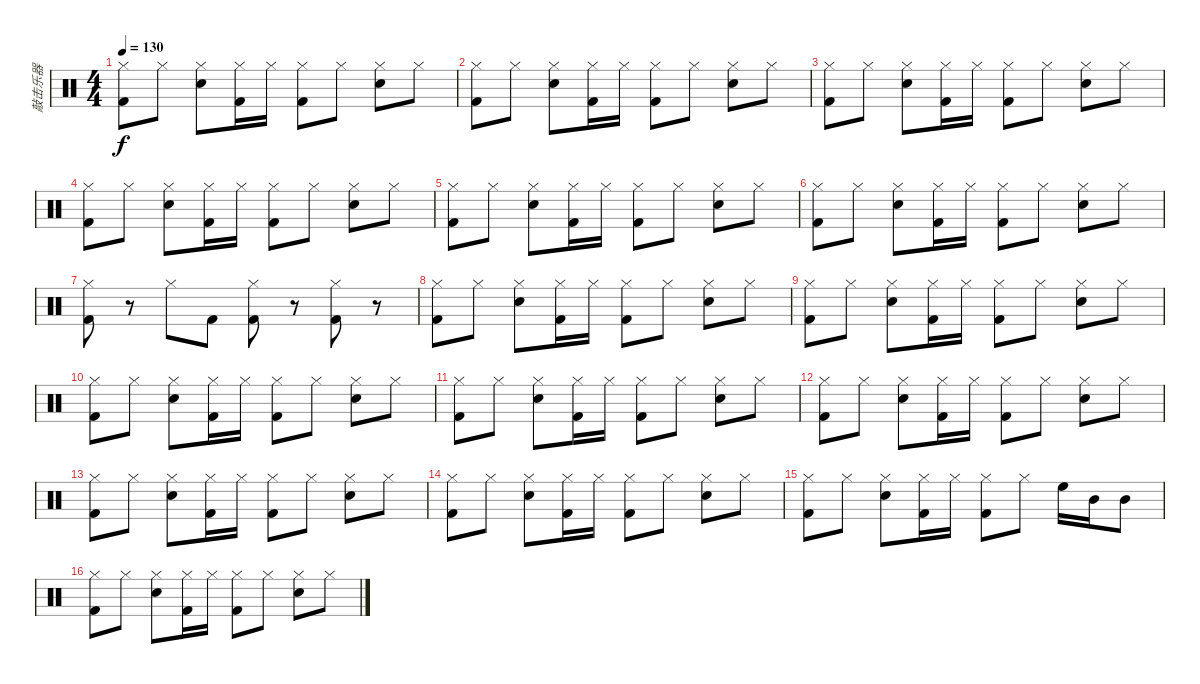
\track ("敲击乐器" "敲击乐器") {instrument percussion}
\staff {score}
\articulation defaults
\ts (4 4)
\tempo 130
\clef neutral
\ks c
("Hi-Hat (closed)" "Kick (hit) 2").8{dy f} "Hi-Hat (closed)".8 ("Hi-Hat (closed)" "Snare (hit) 2").8 ("Hi-Hat (closed)" "Kick (hit) 2").16 "Hi-Hat (closed)".16 ("Hi-Hat (closed)" "Kick (hit) 2").8 "Hi-Hat (closed)".8 ("Hi-Hat (closed)" "Snare (hit) 2").8 "Hi-Hat (closed)".8 |
("Hi-Hat (closed)" "Kick (hit) 2").8 "Hi-Hat (closed)".8 ("Hi-Hat (closed)" "Snare (hit) 2").8 ("Hi-Hat (closed)" "Kick (hit) 2").16 "Hi-Hat (closed)".16 ("Hi-Hat (closed)" "Kick (hit) 2").8 "Hi-Hat (closed)".8 ("Hi-Hat (closed)" "Snare (hit) 2").8 "Hi-Hat (closed)".8 |
("Hi-Hat (closed)" "Kick (hit) 2").8 "Hi-Hat (closed)".8 ("Hi-Hat (closed)" "Snare (hit) 2").8 ("Hi-Hat (closed)" "Kick (hit) 2").16 "Hi-Hat (closed)".16 ("Hi-Hat (closed)" "Kick (hit) 2").8 "Hi-Hat (closed)".8 ("Hi-Hat (closed)" "Snare (hit) 2").8 "Hi-Hat (closed)".8 |
("Hi-Hat (closed)" "Kick (hit) 2").8 "Hi-Hat (closed)".8 ("Hi-Hat (closed)" "Snare (hit) 2").8 ("Hi-Hat (closed)" "Kick (hit) 2").16 "Hi-Hat (closed)".16 ("Hi-Hat (closed)" "Kick (hit) 2").8 "Hi-Hat (closed)".8 ("Hi-Hat (closed)" "Snare (hit) 2").8 "Hi-Hat (closed)".8 |
("Hi-Hat (closed)" "Kick (hit) 2").8 "Hi-Hat (closed)".8 ("Hi-Hat (closed)" "Snare (hit) 2").8 ("Hi-Hat (closed)" "Kick (hit) 2").16 "Hi-Hat (closed)".16 ("Hi-Hat (closed)" "Kick (hit) 2").8 "Hi-Hat (closed)".8 ("Hi-Hat (closed)" "Snare (hit) 2").8 "Hi-Hat (closed)".8 |
("Hi-Hat (closed)" "Kick (hit) 2").8 "Hi-Hat (closed)".8 ("Hi-Hat (closed)" "Snare (hit) 2").8 ("Hi-Hat (closed)" "Kick (hit) 2").16 "Hi-Hat (closed)".16 ("Hi-Hat (closed)" "Kick (hit) 2").8 "Hi-Hat (closed)".8 ("Hi-Hat (closed)" "Snare (hit) 2").8 "Hi-Hat (closed)".8 |
("Hi-Hat (closed)" "Kick (hit) 2").8 r.8 "Hi-Hat (closed)".8 "Kick (hit) 2".8 ("Hi-Hat (closed)" "Kick (hit) 2").8 r.8 ("Hi-Hat (closed)" "Kick (hit) 2").8 r.8 |
("Hi-Hat (closed)" "Kick (hit) 2").8 "Hi-Hat (closed)".8 ("Hi-Hat (closed)" "Snare (hit) 2").8 ("Hi-Hat (closed)" "Kick (hit) 2").16 "Hi-Hat (closed)".16 ("Hi-Hat (closed)" "Kick (hit) 2").8 "Hi-Hat (closed)".8 ("Hi-Hat (closed)" "Snare (hit) 2").8 "Hi-Hat (closed)".8 |
("Hi-Hat (closed)" "Kick (hit) 2").8 "Hi-Hat (closed)".8 ("Hi-Hat (closed)" "Snare (hit) 2").8 ("Hi-Hat (closed)" "Kick (hit) 2").16 "Hi-Hat (closed)".16 ("Hi-Hat (closed)" "Kick (hit) 2").8 "Hi-Hat (closed)".8 ("Hi-Hat (closed)" "Snare (hit) 2").8 "Hi-Hat (closed)".8 |
("Hi-Hat (closed)" "Kick (hit) 2").8 "Hi-Hat (closed)".8 ("Hi-Hat (closed)" "Snare (hit) 2").8 ("Hi-Hat (closed)" "Kick (hit) 2").16 "Hi-Hat (closed)".16 ("Hi-Hat (closed)" "Kick (hit) 2").8 "Hi-Hat (closed)".8 ("Hi-Hat (closed)" "Snare (hit) 2").8 "Hi-Hat (closed)".8 |
("Hi-Hat (closed)" "Kick (hit) 2").8 "Hi-Hat (closed)".8 ("Hi-Hat (closed)" "Snare (hit) 2").8 ("Hi-Hat (closed)" "Kick (hit) 2").16 "Hi-Hat (closed)".16 ("Hi-Hat (closed)" "Kick (hit) 2").8 "Hi-Hat (closed)".8 ("Hi-Hat (closed)" "Snare (hit) 2").8 "Hi-Hat (closed)".8 |
("Hi-Hat (closed)" "Kick (hit) 2").8 "Hi-Hat (closed)".8 ("Hi-Hat (closed)" "Snare (hit) 2").8 ("Hi-Hat (closed)" "Kick (hit) 2").16 "Hi-Hat (closed)".16 ("Hi-Hat (closed)" "Kick (hit) 2").8 "Hi-Hat (closed)".8 ("Hi-Hat (closed)" "Snare (hit) 2").8 "Hi-Hat (closed)".8 |
("Hi-Hat (closed)" "Kick (hit) 2").8 "Hi-Hat (closed)".8 ("Hi-Hat (closed)" "Snare (hit) 2").8 ("Hi-Hat (closed)" "Kick (hit) 2").16 "Hi-Hat (closed)".16 ("Hi-Hat (closed)" "Kick (hit) 2").8 "Hi-Hat (closed)".8 ("Hi-Hat (closed)" "Snare (hit) 2").8 "Hi-Hat (closed)".8 |
("Hi-Hat (closed)" "Kick (hit) 2").8 "Hi-Hat (closed)".8 ("Hi-Hat (closed)" "Snare (hit) 2").8 ("Hi-Hat (closed)" "Kick (hit) 2").16 "Hi-Hat (closed)".16 ("Hi-Hat (closed)" "Kick (hit) 2").8 "Hi-Hat (closed)".8 ("Hi-Hat (closed)" "Snare (hit) 2").8 "Hi-Hat (closed)".8 |
("Hi-Hat (closed)" "Kick (hit) 2").8 "Hi-Hat (closed)".8 ("Hi-Hat (closed)" "Snare (hit) 2").8 ("Hi-Hat (closed)" "Kick (hit) 2").16 "Hi-Hat (closed)".16 ("Hi-Hat (closed)" "Kick (hit) 2").8 "Hi-Hat (closed)".8 "High Floor Tom (hit)".16 "Mid Tom (hit)".16 "Mid Tom (hit)".8 |
("Hi-Hat (closed)" "Kick (hit) 2").8 "Hi-Hat (closed)".8 ("Hi-Hat (closed)" "Snare (hit) 2").8 ("Hi-Hat (closed)" "Kick (hit) 2").16 "Hi-Hat (closed)".16 ("Hi-Hat (closed)" "Kick (hit) 2").8 "Hi-Hat (closed)".8 ("Hi-Hat (closed)" "Snare (hit) 2").8 "Hi-Hat (closed)".8
